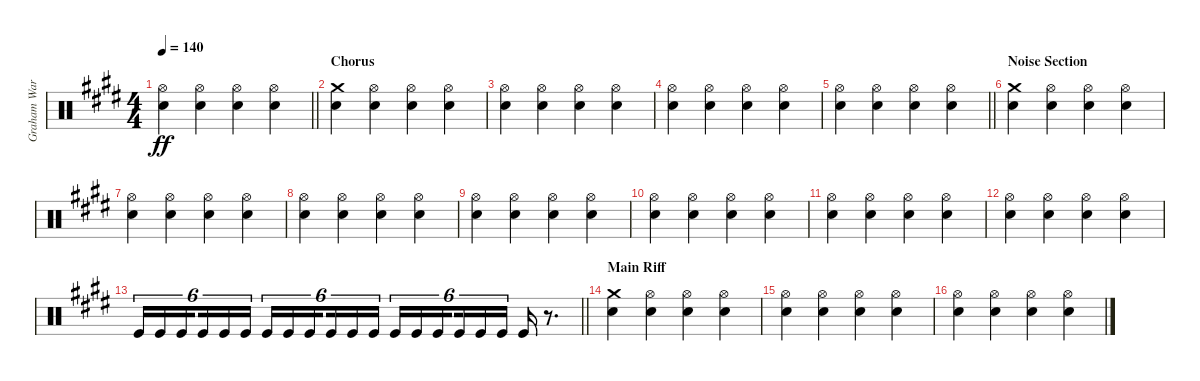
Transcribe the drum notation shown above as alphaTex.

\track ("Graham Ward (Drums)" "Graham War") {instrument percussion}
\staff {score}
\articulation defaults
\ts (4 4)
\tempo 140
\clef neutral
\barLineRight lightlight
\ks e
("Snare (hit) 2" "Hi-Hat (open)").4{dy ff} ("Snare (hit) 2" "Hi-Hat (open)").4 ("Snare (hit) 2" "Hi-Hat (open)").4 ("Snare (hit) 2" "Hi-Hat (open)").4 |
\section ("" "Chorus")
("Crash medium (hit)" "Snare (hit) 2").4 ("Snare (hit) 2" "Hi-Hat (open)").4 ("Snare (hit) 2" "Hi-Hat (open)").4 ("Snare (hit) 2" "Hi-Hat (open)").4 |
("Snare (hit) 2" "Hi-Hat (open)").4 ("Snare (hit) 2" "Hi-Hat (open)").4 ("Snare (hit) 2" "Hi-Hat (open)").4 ("Snare (hit) 2" "Hi-Hat (open)").4 |
("Snare (hit) 2" "Hi-Hat (open)").4 ("Snare (hit) 2" "Hi-Hat (open)").4 ("Snare (hit) 2" "Hi-Hat (open)").4 ("Snare (hit) 2" "Hi-Hat (open)").4 |
\barLineRight lightlight
("Snare (hit) 2" "Hi-Hat (open)").4 ("Snare (hit) 2" "Hi-Hat (open)").4 ("Snare (hit) 2" "Hi-Hat (open)").4 ("Snare (hit) 2" "Hi-Hat (open)").4 |
\section ("" "Noise Section")
("Crash medium (hit)" "Snare (hit) 2").4 ("Snare (hit) 2" "Hi-Hat (open)").4 ("Snare (hit) 2" "Hi-Hat (open)").4 ("Snare (hit) 2" "Hi-Hat (open)").4 |
("Snare (hit) 2" "Hi-Hat (open)").4 ("Snare (hit) 2" "Hi-Hat (open)").4 ("Snare (hit) 2" "Hi-Hat (open)").4 ("Snare (hit) 2" "Hi-Hat (open)").4 |
("Snare (hit) 2" "Hi-Hat (open)").4 ("Snare (hit) 2" "Hi-Hat (open)").4 ("Snare (hit) 2" "Hi-Hat (open)").4 ("Snare (hit) 2" "Hi-Hat (open)").4 |
("Snare (hit) 2" "Hi-Hat (open)").4 ("Snare (hit) 2" "Hi-Hat (open)").4 ("Snare (hit) 2" "Hi-Hat (open)").4 ("Snare (hit) 2" "Hi-Hat (open)").4 |
("Snare (hit) 2" "Hi-Hat (open)").4 ("Snare (hit) 2" "Hi-Hat (open)").4 ("Snare (hit) 2" "Hi-Hat (open)").4 ("Snare (hit) 2" "Hi-Hat (open)").4 |
("Snare (hit) 2" "Hi-Hat (open)").4 ("Snare (hit) 2" "Hi-Hat (open)").4 ("Snare (hit) 2" "Hi-Hat (open)").4 ("Snare (hit) 2" "Hi-Hat (open)").4 |
("Snare (hit) 2" "Hi-Hat (open)").4 ("Snare (hit) 2" "Hi-Hat (open)").4 ("Snare (hit) 2" "Hi-Hat (open)").4 ("Snare (hit) 2" "Hi-Hat (open)").4 |
\barLineRight lightlight "Kick (hit)".16{tu (6 4)} "Kick (hit)".16{tu (6 4)} "Kick (hit)".16{tu (6 4) beam splitsecondary} "Kick (hit)".16{tu (6 4)} "Kick (hit)".16{tu (6 4)} "Kick (hit)".16{tu (6 4)} "Kick (hit)".16{tu (6 4)} "Kick (hit)".16{tu (6 4)} "Kick (hit)".16{tu (6 4) beam splitsecondary} "Kick (hit)".16{tu (6 4)} "Kick (hit)".16{tu (6 4)} "Kick (hit)".16{tu (6 4)} "Kick (hit)".16{tu (6 4)} "Kick (hit)".16{tu (6 4)} "Kick (hit)".16{tu (6 4) beam splitsecondary} "Kick (hit)".16{tu (6 4)} "Kick (hit)".16{tu (6 4)} "Kick (hit)".16{tu (6 4)} "Kick (hit)".16
r.8{d} |
\section ("" "Main Riff")
("Crash medium (hit)" "Snare (hit) 2").4 ("Snare (hit) 2" "Hi-Hat (open)").4 ("Snare (hit) 2" "Hi-Hat (open)").4 ("Snare (hit) 2" "Hi-Hat (open)").4 |
("Snare (hit) 2" "Hi-Hat (open)").4 ("Snare (hit) 2" "Hi-Hat (open)").4 ("Snare (hit) 2" "Hi-Hat (open)").4 ("Snare (hit) 2" "Hi-Hat (open)").4 |
("Snare (hit) 2" "Hi-Hat (open)").4 ("Snare (hit) 2" "Hi-Hat (open)").4 ("Snare (hit) 2" "Hi-Hat (open)").4 ("Snare (hit) 2" "Hi-Hat (open)").4
